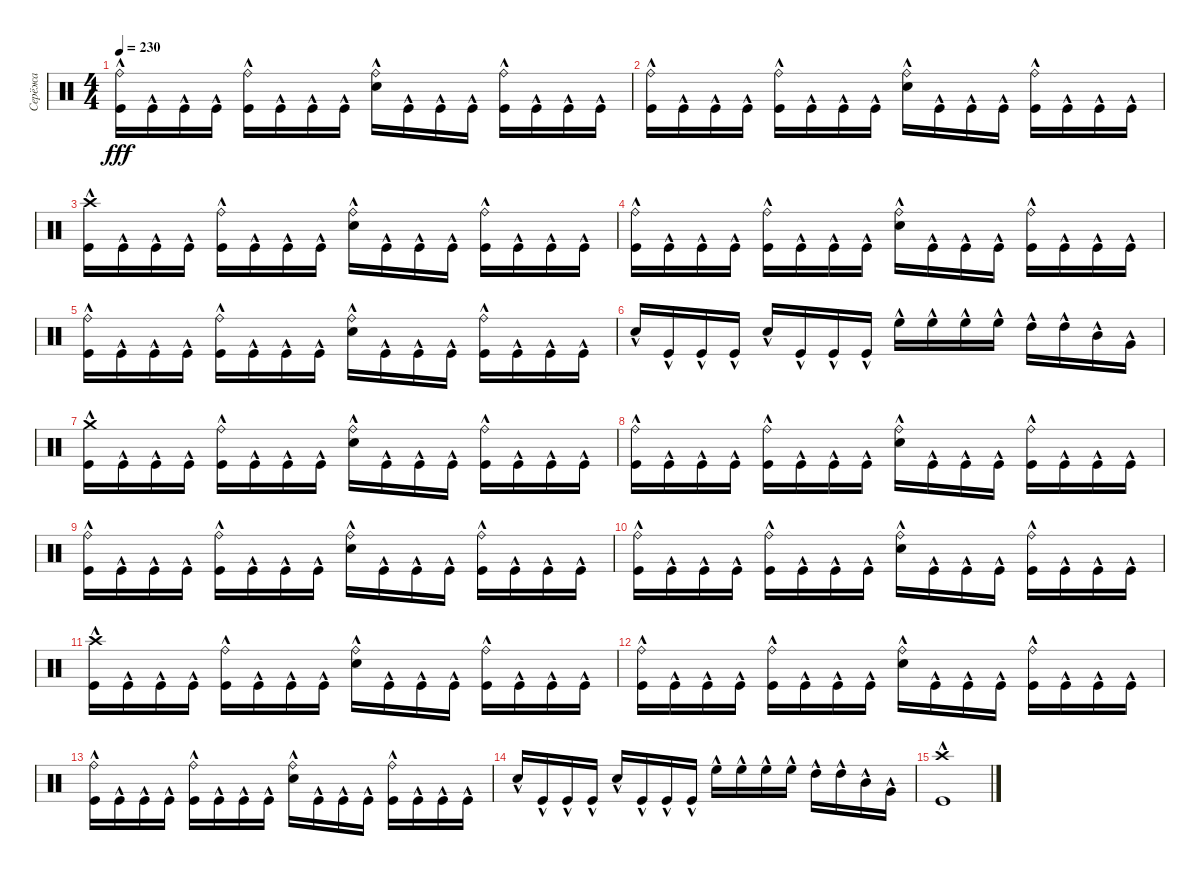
\track ("Серёжа" "Серёжа") {instrument percussion}
\staff {score}
\articulation defaults
\ts (4 4)
\tempo 230
\clef neutral
\ks c
("Ride (bell)" "Kick (hit)"{hac}).16{dy fff} "Kick (hit)"{hac}.16 "Kick (hit)"{hac}.16 "Kick (hit)"{hac}.16 ("Ride (bell)" "Kick (hit)"{hac}).16 "Kick (hit)"{hac}.16 "Kick (hit)"{hac}.16 "Kick (hit)"{hac}.16 ("Ride (bell)" "Snare (hit) 2"{hac}).16 "Kick (hit)"{hac}.16 "Kick (hit)"{hac}.16 "Kick (hit)"{hac}.16 ("Ride (bell)" "Kick (hit)"{hac}).16 "Kick (hit)"{hac}.16 "Kick (hit)"{hac}.16 "Kick (hit)"{hac}.16 |
("Ride (bell)" "Kick (hit)"{hac}).16 "Kick (hit)"{hac}.16 "Kick (hit)"{hac}.16 "Kick (hit)"{hac}.16 ("Ride (bell)" "Kick (hit)"{hac}).16 "Kick (hit)"{hac}.16 "Kick (hit)"{hac}.16 "Kick (hit)"{hac}.16 ("Ride (bell)" "Snare (hit) 2"{hac}).16 "Kick (hit)"{hac}.16 "Kick (hit)"{hac}.16 "Kick (hit)"{hac}.16 ("Ride (bell)" "Kick (hit)"{hac}).16 "Kick (hit)"{hac}.16 "Kick (hit)"{hac}.16 "Kick (hit)"{hac}.16 |
("Crash high (hit)"{hac} "Kick (hit)"{hac}).16 "Kick (hit)"{hac}.16 "Kick (hit)"{hac}.16 "Kick (hit)"{hac}.16 ("Ride (bell)" "Kick (hit)"{hac}).16 "Kick (hit)"{hac}.16 "Kick (hit)"{hac}.16 "Kick (hit)"{hac}.16 ("Ride (bell)" "Snare (hit) 2"{hac}).16 "Kick (hit)"{hac}.16 "Kick (hit)"{hac}.16 "Kick (hit)"{hac}.16 ("Ride (bell)" "Kick (hit)"{hac}).16 "Kick (hit)"{hac}.16 "Kick (hit)"{hac}.16 "Kick (hit)"{hac}.16 |
("Ride (bell)" "Kick (hit)"{hac}).16 "Kick (hit)"{hac}.16 "Kick (hit)"{hac}.16 "Kick (hit)"{hac}.16 ("Ride (bell)" "Kick (hit)"{hac}).16 "Kick (hit)"{hac}.16 "Kick (hit)"{hac}.16 "Kick (hit)"{hac}.16 ("Ride (bell)" "Snare (hit) 2"{hac}).16 "Kick (hit)"{hac}.16 "Kick (hit)"{hac}.16 "Kick (hit)"{hac}.16 ("Ride (bell)" "Kick (hit)"{hac}).16 "Kick (hit)"{hac}.16 "Kick (hit)"{hac}.16 "Kick (hit)"{hac}.16 |
("Ride (bell)" "Kick (hit)"{hac}).16 "Kick (hit)"{hac}.16 "Kick (hit)"{hac}.16 "Kick (hit)"{hac}.16 ("Ride (bell)" "Kick (hit)"{hac}).16 "Kick (hit)"{hac}.16 "Kick (hit)"{hac}.16 "Kick (hit)"{hac}.16 ("Ride (bell)" "Snare (hit) 2"{hac}).16 "Kick (hit)"{hac}.16 "Kick (hit)"{hac}.16 "Kick (hit)"{hac}.16 ("Ride (bell)" "Kick (hit)"{hac}).16 "Kick (hit)"{hac}.16 "Kick (hit)"{hac}.16 "Kick (hit)"{hac}.16 |
"Snare (hit) 2"{hac}.16 "Kick (hit)"{hac}.16 "Kick (hit)"{hac}.16 "Kick (hit)"{hac}.16 "Snare (hit) 2"{hac}.16 "Kick (hit)"{hac}.16 "Kick (hit)"{hac}.16 "Kick (hit)"{hac}.16 "High Floor Tom (hit)"{hac}.16 "High Floor Tom (hit)"{hac}.16 "High Floor Tom (hit)"{hac}.16 "High Floor Tom (hit)"{hac}.16 "High Tom (hit)"{hac}.16 "High Tom (hit)"{hac}.16 "Mid Tom (hit)"{hac}.16 "Very Low Tom (hit)"{hac}.16 |
("Crash medium (hit)"{hac} "Kick (hit)"{hac}).16 "Kick (hit)"{hac}.16 "Kick (hit)"{hac}.16 "Kick (hit)"{hac}.16 ("Ride (bell)" "Kick (hit)"{hac}).16 "Kick (hit)"{hac}.16 "Kick (hit)"{hac}.16 "Kick (hit)"{hac}.16 ("Ride (bell)" "Snare (hit) 2"{hac}).16 "Kick (hit)"{hac}.16 "Kick (hit)"{hac}.16 "Kick (hit)"{hac}.16 ("Ride (bell)" "Kick (hit)"{hac}).16 "Kick (hit)"{hac}.16 "Kick (hit)"{hac}.16 "Kick (hit)"{hac}.16 |
("Ride (bell)" "Kick (hit)"{hac}).16 "Kick (hit)"{hac}.16 "Kick (hit)"{hac}.16 "Kick (hit)"{hac}.16 ("Ride (bell)" "Kick (hit)"{hac}).16 "Kick (hit)"{hac}.16 "Kick (hit)"{hac}.16 "Kick (hit)"{hac}.16 ("Ride (bell)" "Snare (hit) 2"{hac}).16 "Kick (hit)"{hac}.16 "Kick (hit)"{hac}.16 "Kick (hit)"{hac}.16 ("Ride (bell)" "Kick (hit)"{hac}).16 "Kick (hit)"{hac}.16 "Kick (hit)"{hac}.16 "Kick (hit)"{hac}.16 |
("Ride (bell)" "Kick (hit)"{hac}).16 "Kick (hit)"{hac}.16 "Kick (hit)"{hac}.16 "Kick (hit)"{hac}.16 ("Ride (bell)" "Kick (hit)"{hac}).16 "Kick (hit)"{hac}.16 "Kick (hit)"{hac}.16 "Kick (hit)"{hac}.16 ("Ride (bell)" "Snare (hit) 2"{hac}).16 "Kick (hit)"{hac}.16 "Kick (hit)"{hac}.16 "Kick (hit)"{hac}.16 ("Ride (bell)" "Kick (hit)"{hac}).16 "Kick (hit)"{hac}.16 "Kick (hit)"{hac}.16 "Kick (hit)"{hac}.16 |
("Ride (bell)" "Kick (hit)"{hac}).16 "Kick (hit)"{hac}.16 "Kick (hit)"{hac}.16 "Kick (hit)"{hac}.16 ("Ride (bell)" "Kick (hit)"{hac}).16 "Kick (hit)"{hac}.16 "Kick (hit)"{hac}.16 "Kick (hit)"{hac}.16 ("Ride (bell)" "Snare (hit) 2"{hac}).16 "Kick (hit)"{hac}.16 "Kick (hit)"{hac}.16 "Kick (hit)"{hac}.16 ("Ride (bell)" "Kick (hit)"{hac}).16 "Kick (hit)"{hac}.16 "Kick (hit)"{hac}.16 "Kick (hit)"{hac}.16 |
("Crash high (hit)"{hac} "Kick (hit)"{hac}).16 "Kick (hit)"{hac}.16 "Kick (hit)"{hac}.16 "Kick (hit)"{hac}.16 ("Ride (bell)" "Kick (hit)"{hac}).16 "Kick (hit)"{hac}.16 "Kick (hit)"{hac}.16 "Kick (hit)"{hac}.16 ("Ride (bell)" "Snare (hit) 2"{hac}).16 "Kick (hit)"{hac}.16 "Kick (hit)"{hac}.16 "Kick (hit)"{hac}.16 ("Ride (bell)" "Kick (hit)"{hac}).16 "Kick (hit)"{hac}.16 "Kick (hit)"{hac}.16 "Kick (hit)"{hac}.16 |
("Ride (bell)" "Kick (hit)"{hac}).16 "Kick (hit)"{hac}.16 "Kick (hit)"{hac}.16 "Kick (hit)"{hac}.16 ("Ride (bell)" "Kick (hit)"{hac}).16 "Kick (hit)"{hac}.16 "Kick (hit)"{hac}.16 "Kick (hit)"{hac}.16 ("Ride (bell)" "Snare (hit) 2"{hac}).16 "Kick (hit)"{hac}.16 "Kick (hit)"{hac}.16 "Kick (hit)"{hac}.16 ("Ride (bell)" "Kick (hit)"{hac}).16 "Kick (hit)"{hac}.16 "Kick (hit)"{hac}.16 "Kick (hit)"{hac}.16 |
("Ride (bell)" "Kick (hit)"{hac}).16 "Kick (hit)"{hac}.16 "Kick (hit)"{hac}.16 "Kick (hit)"{hac}.16 ("Ride (bell)" "Kick (hit)"{hac}).16 "Kick (hit)"{hac}.16 "Kick (hit)"{hac}.16 "Kick (hit)"{hac}.16 ("Ride (bell)" "Snare (hit) 2"{hac}).16 "Kick (hit)"{hac}.16 "Kick (hit)"{hac}.16 "Kick (hit)"{hac}.16 ("Ride (bell)" "Kick (hit)"{hac}).16 "Kick (hit)"{hac}.16 "Kick (hit)"{hac}.16 "Kick (hit)"{hac}.16 |
"Snare (hit) 2"{hac}.16 "Kick (hit)"{hac}.16 "Kick (hit)"{hac}.16 "Kick (hit)"{hac}.16 "Snare (hit) 2"{hac}.16 "Kick (hit)"{hac}.16 "Kick (hit)"{hac}.16 "Kick (hit)"{hac}.16 "High Floor Tom (hit)"{hac}.16 "High Floor Tom (hit)"{hac}.16 "High Floor Tom (hit)"{hac}.16 "High Floor Tom (hit)"{hac}.16 "High Tom (hit)"{hac}.16 "High Tom (hit)"{hac}.16 "Mid Tom (hit)"{hac}.16 "Very Low Tom (hit)"{hac}.16 |
("Crash high (hit)"{hac} "Kick (hit)"{hac}).1
